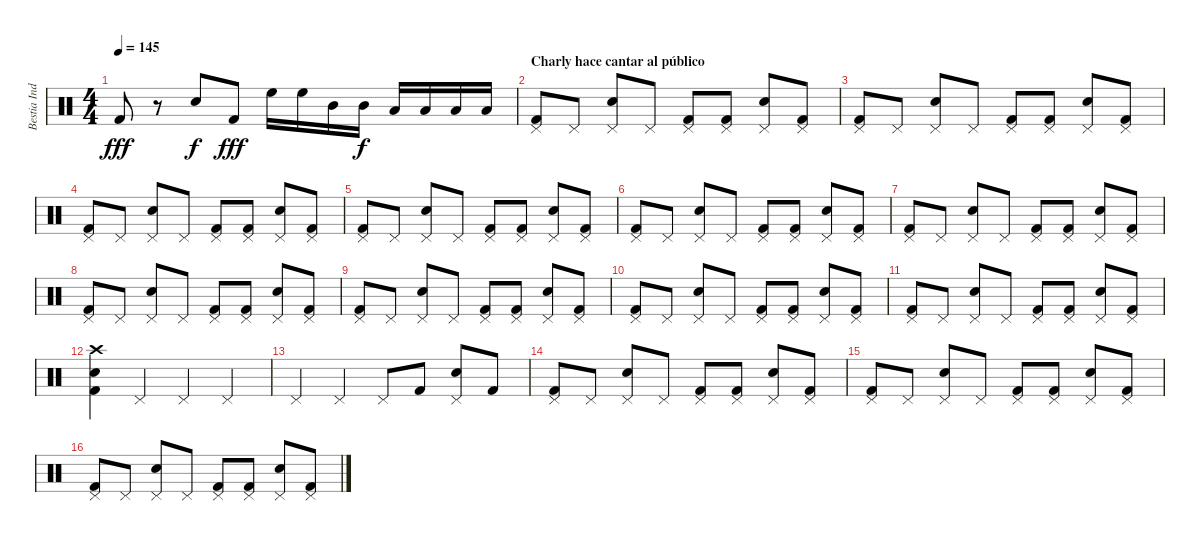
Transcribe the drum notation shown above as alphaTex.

\track ("Bestia Indomable" "Bestia Ind") {instrument percussion}
\staff {score}
\articulation defaults
\ts (4 4)
\tempo 145
\clef neutral
\ks c "Kick (hit) 2".8{dy fff}
r.8 "Electric Snare (hit)".8{dy f} "Kick (hit) 2".8{dy fff} "High Floor Tom (hit)".16 "High Floor Tom (hit)".16 "Mid Tom (hit)".16 "Mid Tom (hit)".16{dy f} "Low Tom (hit)".16 "Low Tom (hit)".16 "Low Floor Tom (hit)".16 "Low Floor Tom (hit)".16 |
\section ("" "Charly hace cantar al público")
("Pedal Hi-Hat (hit)" "Kick (hit) 2").8 "Pedal Hi-Hat (hit)".8 ("Pedal Hi-Hat (hit)" "Electric Snare (hit)").8 "Pedal Hi-Hat (hit)".8 ("Pedal Hi-Hat (hit)" "Kick (hit) 2").8 ("Pedal Hi-Hat (hit)" "Kick (hit) 2").8 ("Pedal Hi-Hat (hit)" "Electric Snare (hit)").8 ("Pedal Hi-Hat (hit)" "Kick (hit) 2").8 |
("Pedal Hi-Hat (hit)" "Kick (hit) 2").8 "Pedal Hi-Hat (hit)".8 ("Pedal Hi-Hat (hit)" "Electric Snare (hit)").8 "Pedal Hi-Hat (hit)".8 ("Pedal Hi-Hat (hit)" "Kick (hit) 2").8 ("Pedal Hi-Hat (hit)" "Kick (hit) 2").8 ("Pedal Hi-Hat (hit)" "Electric Snare (hit)").8 ("Pedal Hi-Hat (hit)" "Kick (hit) 2").8 |
("Pedal Hi-Hat (hit)" "Kick (hit) 2").8 "Pedal Hi-Hat (hit)".8 ("Pedal Hi-Hat (hit)" "Electric Snare (hit)").8 "Pedal Hi-Hat (hit)".8 ("Pedal Hi-Hat (hit)" "Kick (hit) 2").8 ("Pedal Hi-Hat (hit)" "Kick (hit) 2").8 ("Pedal Hi-Hat (hit)" "Electric Snare (hit)").8 ("Pedal Hi-Hat (hit)" "Kick (hit) 2").8 |
("Pedal Hi-Hat (hit)" "Kick (hit) 2").8 "Pedal Hi-Hat (hit)".8 ("Pedal Hi-Hat (hit)" "Electric Snare (hit)").8 "Pedal Hi-Hat (hit)".8 ("Pedal Hi-Hat (hit)" "Kick (hit) 2").8 ("Pedal Hi-Hat (hit)" "Kick (hit) 2").8 ("Pedal Hi-Hat (hit)" "Electric Snare (hit)").8 ("Pedal Hi-Hat (hit)" "Kick (hit) 2").8 |
("Pedal Hi-Hat (hit)" "Kick (hit) 2").8 "Pedal Hi-Hat (hit)".8 ("Pedal Hi-Hat (hit)" "Electric Snare (hit)").8 "Pedal Hi-Hat (hit)".8 ("Pedal Hi-Hat (hit)" "Kick (hit) 2").8 ("Pedal Hi-Hat (hit)" "Kick (hit) 2").8 ("Pedal Hi-Hat (hit)" "Electric Snare (hit)").8 ("Pedal Hi-Hat (hit)" "Kick (hit) 2").8 |
("Pedal Hi-Hat (hit)" "Kick (hit) 2").8 "Pedal Hi-Hat (hit)".8 ("Pedal Hi-Hat (hit)" "Electric Snare (hit)").8 "Pedal Hi-Hat (hit)".8 ("Pedal Hi-Hat (hit)" "Kick (hit) 2").8 ("Pedal Hi-Hat (hit)" "Kick (hit) 2").8 ("Pedal Hi-Hat (hit)" "Electric Snare (hit)").8 ("Pedal Hi-Hat (hit)" "Kick (hit) 2").8 |
("Pedal Hi-Hat (hit)" "Kick (hit) 2").8 "Pedal Hi-Hat (hit)".8 ("Pedal Hi-Hat (hit)" "Electric Snare (hit)").8 "Pedal Hi-Hat (hit)".8 ("Pedal Hi-Hat (hit)" "Kick (hit) 2").8 ("Pedal Hi-Hat (hit)" "Kick (hit) 2").8 ("Pedal Hi-Hat (hit)" "Electric Snare (hit)").8 ("Pedal Hi-Hat (hit)" "Kick (hit) 2").8 |
("Pedal Hi-Hat (hit)" "Kick (hit) 2").8 "Pedal Hi-Hat (hit)".8 ("Pedal Hi-Hat (hit)" "Electric Snare (hit)").8 "Pedal Hi-Hat (hit)".8 ("Pedal Hi-Hat (hit)" "Kick (hit) 2").8 ("Pedal Hi-Hat (hit)" "Kick (hit) 2").8 ("Pedal Hi-Hat (hit)" "Electric Snare (hit)").8 ("Pedal Hi-Hat (hit)" "Kick (hit) 2").8 |
("Pedal Hi-Hat (hit)" "Kick (hit) 2").8 "Pedal Hi-Hat (hit)".8 ("Pedal Hi-Hat (hit)" "Electric Snare (hit)").8 "Pedal Hi-Hat (hit)".8 ("Pedal Hi-Hat (hit)" "Kick (hit) 2").8 ("Pedal Hi-Hat (hit)" "Kick (hit) 2").8 ("Pedal Hi-Hat (hit)" "Electric Snare (hit)").8 ("Pedal Hi-Hat (hit)" "Kick (hit) 2").8 |
("Pedal Hi-Hat (hit)" "Kick (hit) 2").8 "Pedal Hi-Hat (hit)".8 ("Pedal Hi-Hat (hit)" "Electric Snare (hit)").8 "Pedal Hi-Hat (hit)".8 ("Pedal Hi-Hat (hit)" "Kick (hit) 2").8 ("Pedal Hi-Hat (hit)" "Kick (hit) 2").8 ("Pedal Hi-Hat (hit)" "Electric Snare (hit)").8 ("Pedal Hi-Hat (hit)" "Kick (hit) 2").8 |
("Crash high (hit)" "Electric Snare (hit)" "Kick (hit) 2").4 "Pedal Hi-Hat (hit)".4 "Pedal Hi-Hat (hit)".4 "Pedal Hi-Hat (hit)".4 |
"Pedal Hi-Hat (hit)".4 "Pedal Hi-Hat (hit)".4 "Pedal Hi-Hat (hit)".8 "Kick (hit) 2".8 ("Pedal Hi-Hat (hit)" "Electric Snare (hit)").8 "Kick (hit) 2".8 |
("Pedal Hi-Hat (hit)" "Kick (hit) 2").8 "Pedal Hi-Hat (hit)".8 ("Pedal Hi-Hat (hit)" "Electric Snare (hit)").8 "Pedal Hi-Hat (hit)".8 ("Pedal Hi-Hat (hit)" "Kick (hit) 2").8 ("Pedal Hi-Hat (hit)" "Kick (hit) 2").8 ("Pedal Hi-Hat (hit)" "Electric Snare (hit)").8 ("Pedal Hi-Hat (hit)" "Kick (hit) 2").8 |
("Pedal Hi-Hat (hit)" "Kick (hit) 2").8 "Pedal Hi-Hat (hit)".8 ("Pedal Hi-Hat (hit)" "Electric Snare (hit)").8 "Pedal Hi-Hat (hit)".8 ("Pedal Hi-Hat (hit)" "Kick (hit) 2").8 ("Pedal Hi-Hat (hit)" "Kick (hit) 2").8 ("Pedal Hi-Hat (hit)" "Electric Snare (hit)").8 ("Pedal Hi-Hat (hit)" "Kick (hit) 2").8 |
("Pedal Hi-Hat (hit)" "Kick (hit) 2").8 "Pedal Hi-Hat (hit)".8 ("Pedal Hi-Hat (hit)" "Electric Snare (hit)").8 "Pedal Hi-Hat (hit)".8 ("Pedal Hi-Hat (hit)" "Kick (hit) 2").8 ("Pedal Hi-Hat (hit)" "Kick (hit) 2").8 ("Pedal Hi-Hat (hit)" "Electric Snare (hit)").8 ("Pedal Hi-Hat (hit)" "Kick (hit) 2").8
